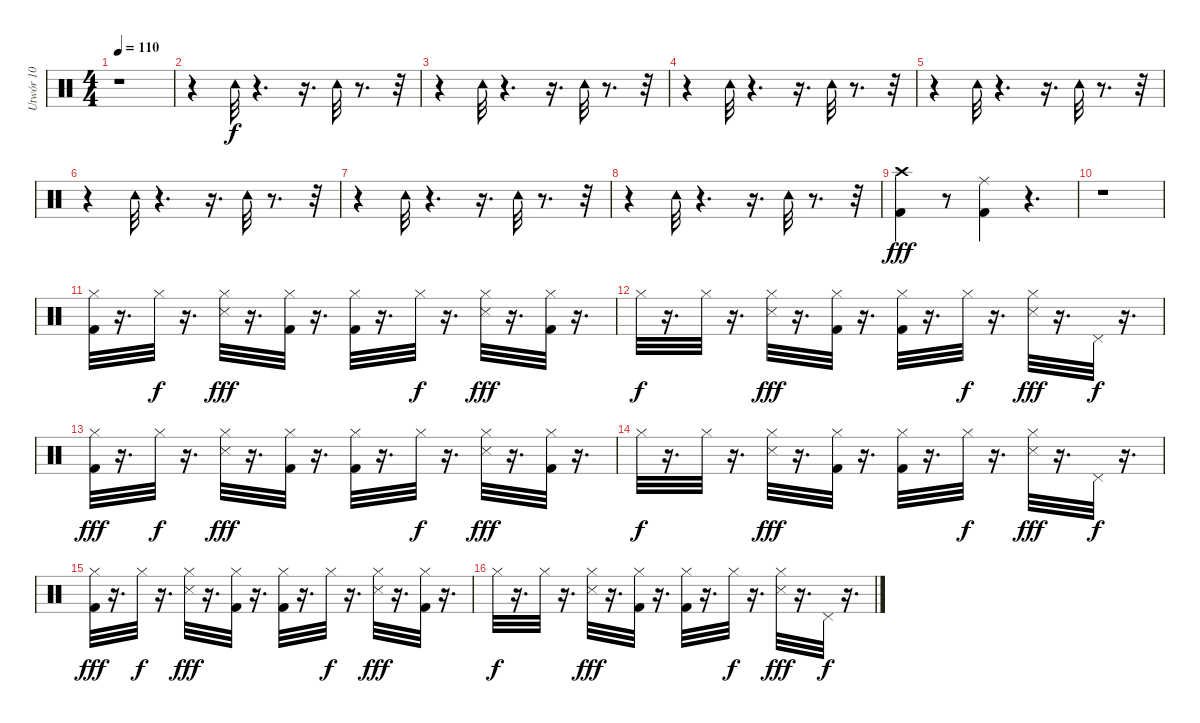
\track ("Utwór 10" "Utwór 10") {instrument percussion}
\staff {score}
\articulation defaults
\ts (4 4)
\tempo 110
\clef neutral
\ks c
r.1{dy f} |
r.4 "Tambourine (hit)".32 r.4{d} r.16{d} "Tambourine (hit)".32 r.8{d} r.32 |
r.4 "Tambourine (hit)".32 r.4{d} r.16{d} "Tambourine (hit)".32 r.8{d} r.32 |
r.4 "Tambourine (hit)".32 r.4{d} r.16{d} "Tambourine (hit)".32 r.8{d} r.32 |
r.4 "Tambourine (hit)".32 r.4{d} r.16{d} "Tambourine (hit)".32 r.8{d} r.32 |
r.4 "Tambourine (hit)".32 r.4{d} r.16{d} "Tambourine (hit)".32 r.8{d} r.32 |
r.4 "Tambourine (hit)".32 r.4{d} r.16{d} "Tambourine (hit)".32 r.8{d} r.32 |
r.4 "Tambourine (hit)".32 r.4{d} r.16{d} "Tambourine (hit)".32 r.8{d} r.32 |
("Kick (hit) 2" "Crash high (hit)").4{dy fff} r.8 ("Kick (hit) 2" "Ride (middle)").4 r.4{d} |
r.1 |
("Kick (hit) 2" "Hi-Hat (closed)").32 r.16{d} "Hi-Hat (closed)".32{dy f} r.16{d} ("Snare (side stick) 3" "Hi-Hat (closed)").32{dy fff} r.16{d} ("Kick (hit) 2" "Hi-Hat (closed)").32 r.16{d} ("Kick (hit) 2" "Hi-Hat (closed)").32 r.16{d} "Hi-Hat (closed)".32{dy f} r.16{d} ("Snare (side stick) 3" "Hi-Hat (closed)").32{dy fff} r.16{d} ("Kick (hit) 2" "Hi-Hat (closed)").32 r.16{d} |
"Hi-Hat (closed)".32{dy f} r.16{d} "Hi-Hat (closed)".32 r.16{d} ("Snare (side stick) 3" "Hi-Hat (closed)").32{dy fff} r.16{d} ("Kick (hit) 2" "Hi-Hat (closed)").32 r.16{d} ("Kick (hit) 2" "Hi-Hat (closed)").32 r.16{d} "Hi-Hat (closed)".32{dy f} r.16{d} ("Snare (side stick) 3" "Hi-Hat (closed)").32{dy fff} r.16{d} "Pedal Hi-Hat (hit)".32{dy f} r.16{d} |
("Kick (hit) 2" "Hi-Hat (closed)").32{dy fff} r.16{d} "Hi-Hat (closed)".32{dy f} r.16{d} ("Snare (side stick) 3" "Hi-Hat (closed)").32{dy fff} r.16{d} ("Kick (hit) 2" "Hi-Hat (closed)").32 r.16{d} ("Kick (hit) 2" "Hi-Hat (closed)").32 r.16{d} "Hi-Hat (closed)".32{dy f} r.16{d} ("Snare (side stick) 3" "Hi-Hat (closed)").32{dy fff} r.16{d} ("Kick (hit) 2" "Hi-Hat (closed)").32 r.16{d} |
"Hi-Hat (closed)".32{dy f} r.16{d} "Hi-Hat (closed)".32 r.16{d} ("Snare (side stick) 3" "Hi-Hat (closed)").32{dy fff} r.16{d} ("Kick (hit) 2" "Hi-Hat (closed)").32 r.16{d} ("Kick (hit) 2" "Hi-Hat (closed)").32 r.16{d} "Hi-Hat (closed)".32{dy f} r.16{d} ("Snare (side stick) 3" "Hi-Hat (closed)").32{dy fff} r.16{d} "Pedal Hi-Hat (hit)".32{dy f} r.16{d} |
("Kick (hit) 2" "Hi-Hat (closed)").32{dy fff} r.16{d} "Hi-Hat (closed)".32{dy f} r.16{d} ("Snare (side stick) 3" "Hi-Hat (closed)").32{dy fff} r.16{d} ("Kick (hit) 2" "Hi-Hat (closed)").32 r.16{d} ("Kick (hit) 2" "Hi-Hat (closed)").32 r.16{d} "Hi-Hat (closed)".32{dy f} r.16{d} ("Snare (side stick) 3" "Hi-Hat (closed)").32{dy fff} r.16{d} ("Kick (hit) 2" "Hi-Hat (closed)").32 r.16{d} |
"Hi-Hat (closed)".32{dy f} r.16{d} "Hi-Hat (closed)".32 r.16{d} ("Snare (side stick) 3" "Hi-Hat (closed)").32{dy fff} r.16{d} ("Kick (hit) 2" "Hi-Hat (closed)").32 r.16{d} ("Kick (hit) 2" "Hi-Hat (closed)").32 r.16{d} "Hi-Hat (closed)".32{dy f} r.16{d} ("Snare (side stick) 3" "Hi-Hat (closed)").32{dy fff} r.16{d} "Pedal Hi-Hat (hit)".32{dy f} r.16{d}
